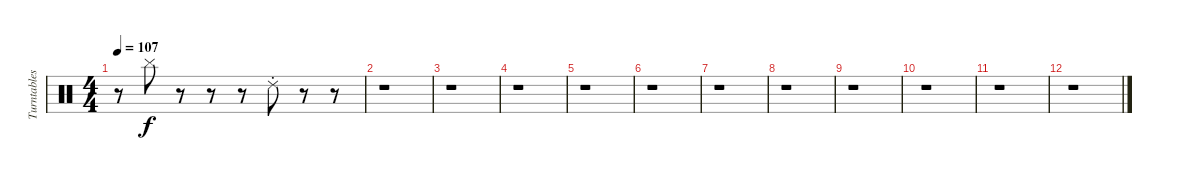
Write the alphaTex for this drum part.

\track ("Turntables" "Turntables") {instrument percussion}
\staff {score}
\articulation defaults
\ts (4 4)
\tempo 107
\clef neutral
\ks c
r.8{dy f} "Cymbal (hit)".8 r.8 r.8 r.8 "Ride (choke) 2".8 r.8 r.8 |
r.1 |
r.1 |
r.1 |
r.1 |
r.1 |
r.1 |
r.1 |
r.1 |
r.1 |
r.1 |
r.1
